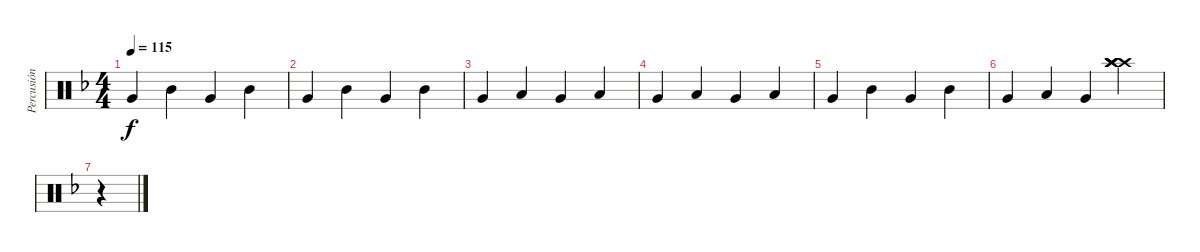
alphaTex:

\track ("Percusión" "Percusión") {instrument percussion}
\staff {score}
\articulation defaults
\ts (4 4)
\tempo 115
\clef neutral
\ks dminor "Very Low Tom (hit)".4{dy f} "Mid Tom (hit)".4 "Very Low Tom (hit)".4 "Mid Tom (hit)".4
|
"Very Low Tom (hit)".4 "Mid Tom (hit)".4 "Very Low Tom (hit)".4 "Mid Tom (hit)".4 |
"Very Low Tom (hit)".4 "Low Tom (hit)".4 "Very Low Tom (hit)".4 "Low Tom (hit)".4 |
"Very Low Tom (hit)".4 "Low Tom (hit)".4 "Very Low Tom (hit)".4 "Low Tom (hit)".4 |
"Very Low Tom (hit)".4 "Mid Tom (hit)".4 "Very Low Tom (hit)".4 "Mid Tom (hit)".4 |
"Very Low Tom (hit)".4 "Low Tom (hit)".4 "Very Low Tom (hit)".4 ("Crash high (hit)" "Crash high (hit)" "Crash high (hit)" "Crash high (hit)").4 |
r.4
